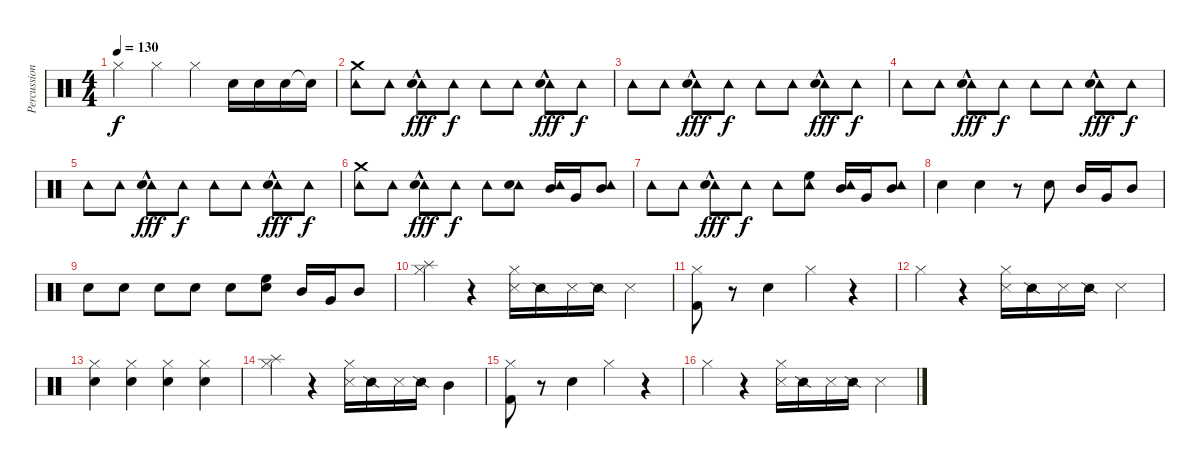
\track ("Percussion" "Percussion") {instrument percussion}
\staff {score}
\articulation defaults
\ts (4 4)
\tempo 130
\clef neutral
\ks c "Hi-Hat (closed)".4{dy f} "Hi-Hat (closed)".4 "Hi-Hat (closed)".4 "Snare (hit) 2".16 "Snare (hit) 2".16 "Snare (hit) 2".16 "Snare (hit) 2"{t}.16
|
("Crash medium (hit)" "Tambourine (hit)").8 "Tambourine (hit)".8 ("Tambourine (hit)"{hac} "Snare (hit) 2").8{dy fff} "Tambourine (hit)".8{dy f} "Tambourine (hit)".8 "Tambourine (hit)".8 ("Tambourine (hit)"{hac} "Snare (hit) 2").8{dy fff} "Tambourine (hit)".8{dy f} |
"Tambourine (hit)".8 "Tambourine (hit)".8 ("Tambourine (hit)"{hac} "Snare (hit) 2").8{dy fff} "Tambourine (hit)".8{dy f} "Tambourine (hit)".8 "Tambourine (hit)".8 ("Tambourine (hit)"{hac} "Snare (hit) 2").8{dy fff} "Tambourine (hit)".8{dy f} |
"Tambourine (hit)".8 "Tambourine (hit)".8 ("Tambourine (hit)"{hac} "Snare (hit) 2").8{dy fff} "Tambourine (hit)".8{dy f} "Tambourine (hit)".8 "Tambourine (hit)".8 ("Tambourine (hit)"{hac} "Snare (hit) 2").8{dy fff} "Tambourine (hit)".8{dy f} |
"Tambourine (hit)".8 "Tambourine (hit)".8 ("Tambourine (hit)"{hac} "Snare (hit) 2").8{dy fff} "Tambourine (hit)".8{dy f} "Tambourine (hit)".8 "Tambourine (hit)".8 ("Tambourine (hit)"{hac} "Snare (hit) 2").8{dy fff} "Tambourine (hit)".8{dy f} |
("Crash medium (hit)" "Tambourine (hit)").8 "Tambourine (hit)".8 ("Tambourine (hit)"{hac} "Snare (hit) 2").8{dy fff} "Tambourine (hit)".8{dy f} "Tambourine (hit)".8 ("Tambourine (hit)" "Electric Snare (hit)").8 ("Tambourine (hit)" "Mid Tom (hit)").16 "Very Low Tom (hit)".16 ("Tambourine (hit)" "Mid Tom (hit)").8 |
"Tambourine (hit)".8 "Tambourine (hit)".8 ("Tambourine (hit)"{hac} "Snare (hit) 2").8{dy fff} "Tambourine (hit)".8{dy f} "Tambourine (hit)".8 ("Tambourine (hit)" "High Floor Tom (hit)").8 ("Tambourine (hit)" "Mid Tom (hit)").16 "Very Low Tom (hit)".16 ("Tambourine (hit)" "Mid Tom (hit)").8 |
"Snare (hit) 2".4 "Snare (hit) 2".4 r.8 "Electric Snare (hit)".8 "Mid Tom (hit)".16 "Very Low Tom (hit)".16 "Mid Tom (hit)".8 |
"Snare (hit) 2".8 "Snare (hit) 2".8 "Snare (hit) 2".8 "Snare (hit) 2".8 "Snare (hit) 2".8 ("Snare (hit) 2" "High Floor Tom (hit)").8 "Mid Tom (hit)".16 "Very Low Tom (hit)".16 "Mid Tom (hit)".8 |
("Splash (hit)" "Hi-Hat (closed)").4 r.4 ("Hi-Hat (closed)" "Snare (side stick) 3").16 "Snare (side stick) 2".16 "Snare (side stick) 3".16 "Snare (side stick) 2".16 "Snare (side stick) 3".4 |
("Hi-Hat (closed)" "Kick (hit) 2").8 r.8 "Snare (hit) 2".4 "Hi-Hat (closed)".4 r.4 |
"Hi-Hat (closed)".4 r.4 ("Hi-Hat (closed)" "Snare (side stick) 3").16 "Snare (side stick) 2".16 "Snare (side stick) 3".16 "Snare (side stick) 2".16 "Snare (side stick) 3".4 |
("Hi-Hat (closed)" "Snare (hit) 2").4 ("Hi-Hat (closed)" "Snare (hit) 2").4 ("Hi-Hat (closed)" "Snare (hit) 2").4 ("Hi-Hat (closed)" "Snare (hit) 2").4 |
("Splash (hit)" "Hi-Hat (closed)").4 r.4 ("Hi-Hat (closed)" "Snare (side stick) 3").16 "Snare (side stick) 2".16 "Snare (side stick) 3".16 "Snare (side stick) 2".16 "Mid Tom (hit)".4 |
("Hi-Hat (closed)" "Kick (hit) 2").8 r.8 "Snare (hit) 2".4 "Hi-Hat (closed)".4 r.4 |
"Hi-Hat (closed)".4 r.4 ("Hi-Hat (closed)" "Snare (side stick) 3").16 "Snare (side stick) 2".16 "Snare (side stick) 3".16 "Snare (side stick) 2".16 "Snare (side stick) 3".4
